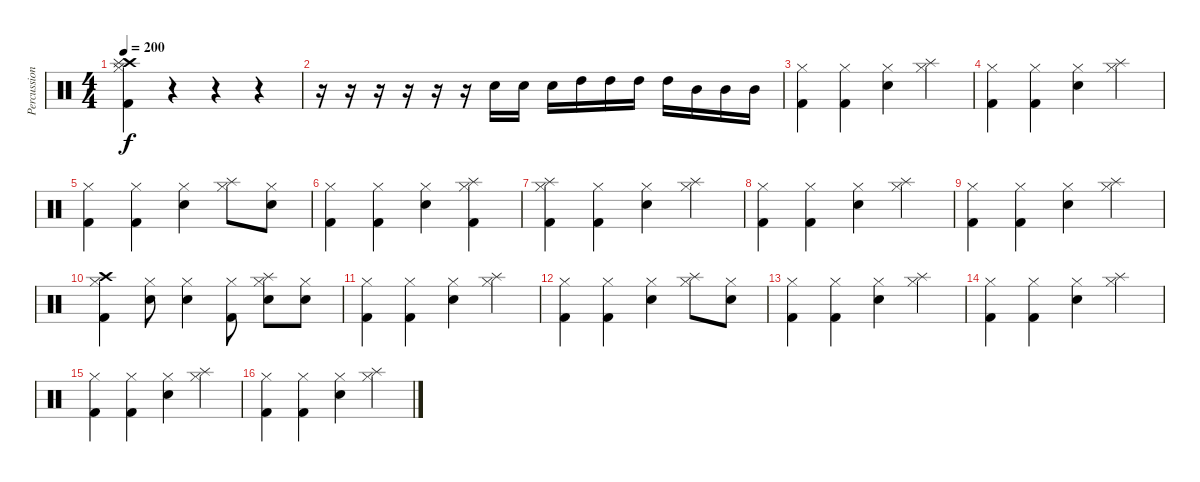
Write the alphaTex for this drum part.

\track ("Percussion" "Percussion") {instrument percussion}
\staff {score}
\articulation defaults
\ts (4 4)
\tempo 200
\clef neutral
\ks c
("Kick (hit) 2" "Crash high (hit)" "Hi-Hat (closed)" "Splash (hit)").4{dy f} r.4 r.4 r.4 |
r.16 r.16 r.16 r.16 r.16 r.16 "Snare (hit) 2".16 "Snare (hit) 2".16 "Snare (hit) 2".16 "High Tom (hit)".16 "High Tom (hit)".16 "High Tom (hit)".16 "High Tom (hit)".16 "Mid Tom (hit)".16 "Mid Tom (hit)".16 "Mid Tom (hit)".16 |
("Kick (hit) 2" "Hi-Hat (closed)").4 ("Kick (hit) 2" "Hi-Hat (closed)").4 ("Snare (hit) 2" "Hi-Hat (closed)").4 ("Splash (hit)" "Hi-Hat (closed)").4 |
("Kick (hit) 2" "Hi-Hat (closed)").4 ("Kick (hit) 2" "Hi-Hat (closed)").4 ("Snare (hit) 2" "Hi-Hat (closed)").4 ("Splash (hit)" "Hi-Hat (closed)").4 |
("Kick (hit) 2" "Hi-Hat (closed)").4 ("Kick (hit) 2" "Hi-Hat (closed)").4 ("Snare (hit) 2" "Hi-Hat (closed)").4 ("Splash (hit)" "Hi-Hat (closed)").8 ("Snare (hit) 2" "Hi-Hat (closed)").8 |
("Kick (hit) 2" "Hi-Hat (closed)").4 ("Kick (hit) 2" "Hi-Hat (closed)").4 ("Snare (hit) 2" "Hi-Hat (closed)").4 ("Kick (hit) 2" "Hi-Hat (closed)" "Splash (hit)").4 |
("Kick (hit) 2" "Hi-Hat (closed)" "Splash (hit)").4 ("Kick (hit) 2" "Hi-Hat (closed)").4 ("Snare (hit) 2" "Hi-Hat (closed)").4 ("Splash (hit)" "Hi-Hat (closed)").4 |
("Kick (hit) 2" "Hi-Hat (closed)").4 ("Kick (hit) 2" "Hi-Hat (closed)").4 ("Snare (hit) 2" "Hi-Hat (closed)").4 ("Splash (hit)" "Hi-Hat (closed)").4 |
("Kick (hit) 2" "Hi-Hat (closed)").4 ("Kick (hit) 2" "Hi-Hat (closed)").4 ("Snare (hit) 2" "Hi-Hat (closed)").4 ("Splash (hit)" "Hi-Hat (closed)").4 |
("Kick (hit) 2" "Hi-Hat (closed)" "Crash high (hit)").4 ("Snare (hit) 2" "Hi-Hat (closed)").8 ("Snare (hit) 2" "Hi-Hat (closed)").4 ("Kick (hit) 2" "Hi-Hat (closed)").8 ("Snare (hit) 2" "Hi-Hat (closed)" "Splash (hit)").8 ("Snare (hit) 2" "Hi-Hat (closed)").8 |
("Kick (hit) 2" "Hi-Hat (closed)").4 ("Kick (hit) 2" "Hi-Hat (closed)").4 ("Snare (hit) 2" "Hi-Hat (closed)").4 ("Splash (hit)" "Hi-Hat (closed)").4 |
("Kick (hit) 2" "Hi-Hat (closed)").4 ("Kick (hit) 2" "Hi-Hat (closed)").4 ("Snare (hit) 2" "Hi-Hat (closed)").4 ("Splash (hit)" "Hi-Hat (closed)").8 ("Snare (hit) 2" "Hi-Hat (closed)").8 |
("Kick (hit) 2" "Hi-Hat (closed)").4 ("Kick (hit) 2" "Hi-Hat (closed)").4 ("Snare (hit) 2" "Hi-Hat (closed)").4 ("Splash (hit)" "Hi-Hat (closed)").4 |
("Kick (hit) 2" "Hi-Hat (closed)").4 ("Kick (hit) 2" "Hi-Hat (closed)").4 ("Snare (hit) 2" "Hi-Hat (closed)").4 ("Splash (hit)" "Hi-Hat (closed)").4 |
("Kick (hit) 2" "Hi-Hat (closed)").4 ("Kick (hit) 2" "Hi-Hat (closed)").4 ("Snare (hit) 2" "Hi-Hat (closed)").4 ("Splash (hit)" "Hi-Hat (closed)").4 |
("Kick (hit) 2" "Hi-Hat (closed)").4 ("Kick (hit) 2" "Hi-Hat (closed)").4 ("Snare (hit) 2" "Hi-Hat (closed)").4 ("Splash (hit)" "Hi-Hat (closed)").4
